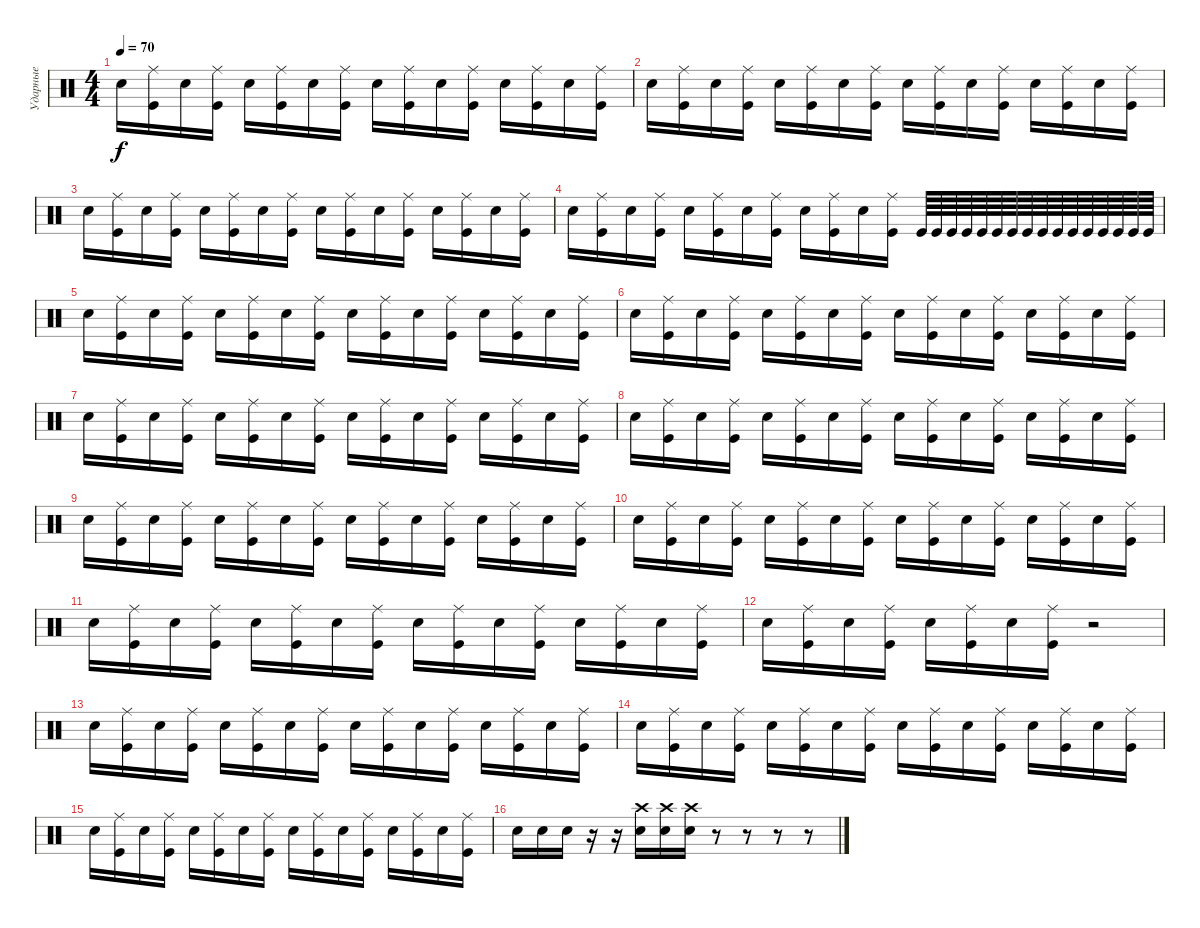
\track ("Ударные" "Ударные") {instrument percussion}
\staff {score}
\articulation defaults
\ts (4 4)
\tempo 70
\clef neutral
\ks c "Snare (hit) 2".16{dy f}
("Kick (hit)" "Ride (middle)").16 "Snare (hit) 2".16 ("Kick (hit)" "Ride (middle)").16 "Snare (hit) 2".16 ("Kick (hit)" "Ride (middle)").16 "Snare (hit) 2".16 ("Kick (hit)" "Ride (middle)").16 "Snare (hit) 2".16 ("Kick (hit)" "Ride (middle)").16 "Snare (hit) 2".16 ("Kick (hit)" "Ride (middle)").16 "Snare (hit) 2".16 ("Kick (hit)" "Ride (middle)").16 "Snare (hit) 2".16 ("Kick (hit)" "Ride (middle)").16 |
"Snare (hit) 2".16 ("Kick (hit)" "Ride (middle)").16 "Snare (hit) 2".16 ("Kick (hit)" "Ride (middle)").16 "Snare (hit) 2".16 ("Kick (hit)" "Ride (middle)").16 "Snare (hit) 2".16 ("Kick (hit)" "Ride (middle)").16 "Snare (hit) 2".16 ("Kick (hit)" "Ride (middle)").16 "Snare (hit) 2".16 ("Kick (hit)" "Ride (middle)").16 "Snare (hit) 2".16 ("Kick (hit)" "Ride (middle)").16 "Snare (hit) 2".16 ("Kick (hit)" "Ride (middle)").16 |
"Snare (hit) 2".16 ("Kick (hit)" "Ride (middle)").16 "Snare (hit) 2".16 ("Kick (hit)" "Ride (middle)").16 "Snare (hit) 2".16 ("Kick (hit)" "Ride (middle)").16 "Snare (hit) 2".16 ("Kick (hit)" "Ride (middle)").16 "Snare (hit) 2".16 ("Kick (hit)" "Ride (middle)").16 "Snare (hit) 2".16 ("Kick (hit)" "Ride (middle)").16 "Snare (hit) 2".16 ("Kick (hit)" "Ride (middle)").16 "Snare (hit) 2".16 ("Kick (hit)" "Ride (middle)").16 |
"Snare (hit) 2".16 ("Kick (hit)" "Ride (middle)").16 "Snare (hit) 2".16 ("Kick (hit)" "Ride (middle)").16 "Snare (hit) 2".16 ("Kick (hit)" "Ride (middle)").16 "Snare (hit) 2".16 ("Kick (hit)" "Ride (middle)").16 "Snare (hit) 2".16 ("Kick (hit)" "Ride (middle)").16 "Snare (hit) 2".16 ("Kick (hit)" "Ride (middle)").16 "Kick (hit)".64 "Kick (hit)".64 "Kick (hit)".64 "Kick (hit)".64 "Kick (hit)".64 "Kick (hit)".64 "Kick (hit)".64 "Kick (hit)".64 "Kick (hit)".64 "Kick (hit)".64 "Kick (hit)".64 "Kick (hit)".64 "Kick (hit)".64 "Kick (hit)".64 "Kick (hit)".64 "Kick (hit)".64 |
"Snare (hit) 2".16 ("Kick (hit)" "Ride (middle)").16 "Snare (hit) 2".16 ("Kick (hit)" "Ride (middle)").16 "Snare (hit) 2".16 ("Kick (hit)" "Ride (middle)").16 "Snare (hit) 2".16 ("Kick (hit)" "Ride (middle)").16 "Snare (hit) 2".16 ("Kick (hit)" "Ride (middle)").16 "Snare (hit) 2".16 ("Kick (hit)" "Ride (middle)").16 "Snare (hit) 2".16 ("Kick (hit)" "Ride (middle)").16 "Snare (hit) 2".16 ("Kick (hit)" "Ride (middle)").16 |
"Snare (hit) 2".16 ("Kick (hit)" "Ride (middle)").16 "Snare (hit) 2".16 ("Kick (hit)" "Ride (middle)").16 "Snare (hit) 2".16 ("Kick (hit)" "Ride (middle)").16 "Snare (hit) 2".16 ("Kick (hit)" "Ride (middle)").16 "Snare (hit) 2".16 ("Kick (hit)" "Ride (middle)").16 "Snare (hit) 2".16 ("Kick (hit)" "Ride (middle)").16 "Snare (hit) 2".16 ("Kick (hit)" "Ride (middle)").16 "Snare (hit) 2".16 ("Kick (hit)" "Ride (middle)").16 |
"Snare (hit) 2".16 ("Kick (hit)" "Ride (middle)").16 "Snare (hit) 2".16 ("Kick (hit)" "Ride (middle)").16 "Snare (hit) 2".16 ("Kick (hit)" "Ride (middle)").16 "Snare (hit) 2".16 ("Kick (hit)" "Ride (middle)").16 "Snare (hit) 2".16 ("Kick (hit)" "Ride (middle)").16 "Snare (hit) 2".16 ("Kick (hit)" "Ride (middle)").16 "Snare (hit) 2".16 ("Kick (hit)" "Ride (middle)").16 "Snare (hit) 2".16 ("Kick (hit)" "Ride (middle)").16 |
"Snare (hit) 2".16 ("Kick (hit)" "Ride (middle)").16 "Snare (hit) 2".16 ("Kick (hit)" "Ride (middle)").16 "Snare (hit) 2".16 ("Kick (hit)" "Ride (middle)").16 "Snare (hit) 2".16 ("Kick (hit)" "Ride (middle)").16 "Snare (hit) 2".16 ("Kick (hit)" "Ride (middle)").16 "Snare (hit) 2".16 ("Kick (hit)" "Ride (middle)").16 "Snare (hit) 2".16 ("Kick (hit)" "Ride (middle)").16 "Snare (hit) 2".16 ("Kick (hit)" "Ride (middle)").16 |
"Snare (hit) 2".16 ("Kick (hit)" "Ride (middle)").16 "Snare (hit) 2".16 ("Kick (hit)" "Ride (middle)").16 "Snare (hit) 2".16 ("Kick (hit)" "Ride (middle)").16 "Snare (hit) 2".16 ("Kick (hit)" "Ride (middle)").16 "Snare (hit) 2".16 ("Kick (hit)" "Ride (middle)").16 "Snare (hit) 2".16 ("Kick (hit)" "Ride (middle)").16 "Snare (hit) 2".16 ("Kick (hit)" "Ride (middle)").16 "Snare (hit) 2".16 ("Kick (hit)" "Ride (middle)").16 |
"Snare (hit) 2".16 ("Kick (hit)" "Ride (middle)").16 "Snare (hit) 2".16 ("Kick (hit)" "Ride (middle)").16 "Snare (hit) 2".16 ("Kick (hit)" "Ride (middle)").16 "Snare (hit) 2".16 ("Kick (hit)" "Ride (middle)").16 "Snare (hit) 2".16 ("Kick (hit)" "Ride (middle)").16 "Snare (hit) 2".16 ("Kick (hit)" "Ride (middle)").16 "Snare (hit) 2".16 ("Kick (hit)" "Ride (middle)").16 "Snare (hit) 2".16 ("Kick (hit)" "Ride (middle)").16 |
"Snare (hit) 2".16 ("Kick (hit)" "Ride (middle)").16 "Snare (hit) 2".16 ("Kick (hit)" "Ride (middle)").16 "Snare (hit) 2".16 ("Kick (hit)" "Ride (middle)").16 "Snare (hit) 2".16 ("Kick (hit)" "Ride (middle)").16 "Snare (hit) 2".16 ("Kick (hit)" "Ride (middle)").16 "Snare (hit) 2".16 ("Kick (hit)" "Ride (middle)").16 "Snare (hit) 2".16 ("Kick (hit)" "Ride (middle)").16 "Snare (hit) 2".16 ("Kick (hit)" "Ride (middle)").16 |
"Snare (hit) 2".16 ("Kick (hit)" "Ride (middle)").16 "Snare (hit) 2".16 ("Kick (hit)" "Ride (middle)").16 "Snare (hit) 2".16 ("Kick (hit)" "Ride (middle)").16 "Snare (hit) 2".16 ("Kick (hit)" "Ride (middle)").16 r.2 |
"Snare (hit) 2".16 ("Kick (hit)" "Ride (middle)").16 "Snare (hit) 2".16 ("Kick (hit)" "Ride (middle)").16 "Snare (hit) 2".16 ("Kick (hit)" "Ride (middle)").16 "Snare (hit) 2".16 ("Kick (hit)" "Ride (middle)").16 "Snare (hit) 2".16 ("Kick (hit)" "Ride (middle)").16 "Snare (hit) 2".16 ("Kick (hit)" "Ride (middle)").16 "Snare (hit) 2".16 ("Kick (hit)" "Ride (middle)").16 "Snare (hit) 2".16 ("Kick (hit)" "Ride (middle)").16 |
"Snare (hit) 2".16 ("Kick (hit)" "Ride (middle)").16 "Snare (hit) 2".16 ("Kick (hit)" "Ride (middle)").16 "Snare (hit) 2".16 ("Kick (hit)" "Ride (middle)").16 "Snare (hit) 2".16 ("Kick (hit)" "Ride (middle)").16 "Snare (hit) 2".16 ("Kick (hit)" "Ride (middle)").16 "Snare (hit) 2".16 ("Kick (hit)" "Ride (middle)").16 "Snare (hit) 2".16 ("Kick (hit)" "Ride (middle)").16 "Snare (hit) 2".16 ("Kick (hit)" "Ride (middle)").16 |
"Snare (hit) 2".16 ("Kick (hit)" "Ride (middle)").16 "Snare (hit) 2".16 ("Kick (hit)" "Ride (middle)").16 "Snare (hit) 2".16 ("Kick (hit)" "Ride (middle)").16 "Snare (hit) 2".16 ("Kick (hit)" "Ride (middle)").16 "Snare (hit) 2".16 ("Kick (hit)" "Ride (middle)").16 "Snare (hit) 2".16 ("Kick (hit)" "Ride (middle)").16 "Snare (hit) 2".16 ("Kick (hit)" "Ride (middle)").16 "Snare (hit) 2".16 ("Kick (hit)" "Ride (middle)").16 |
"Snare (hit) 2".16 "Snare (hit) 2".16 "Snare (hit) 2".16 r.16 r.16 ("Snare (hit) 2" "Crash high (hit)").16 ("Snare (hit) 2" "Crash high (hit)").16 ("Snare (hit) 2" "Crash high (hit)").16 r.8 r.8 r.8 r.8
